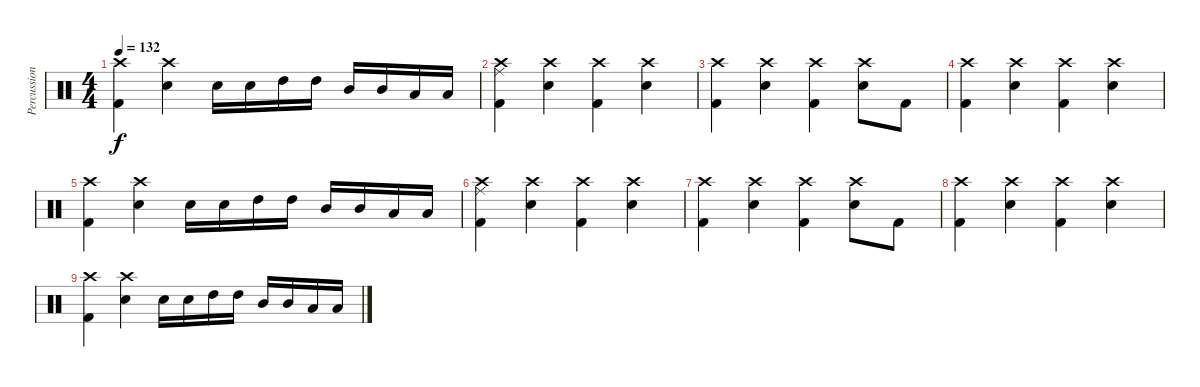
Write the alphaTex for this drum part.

\track ("Percussion" "Percussion") {instrument percussion}
\staff {score}
\articulation defaults
\ts (4 4)
\tempo 132
\clef neutral
\ks c
("Crash high (hit)" "Kick (hit) 2").4{dy f} ("Crash high (hit)" "Snare (hit) 2").4 "Snare (hit) 2".16 "Snare (hit) 2".16 "High Tom (hit)".16 "High Tom (hit)".16 "Mid Tom (hit)".16 "Mid Tom (hit)".16 "Low Tom (hit)".16 "Low Tom (hit)".16 |
("Ride (middle)" "Crash high (hit)" "Kick (hit) 2").4 ("Crash high (hit)" "Snare (hit) 2").4 ("Crash high (hit)" "Kick (hit) 2").4 ("Crash high (hit)" "Snare (hit) 2").4 |
("Crash high (hit)" "Kick (hit) 2").4 ("Crash high (hit)" "Snare (hit) 2").4 ("Crash high (hit)" "Kick (hit) 2").4 ("Crash high (hit)" "Snare (hit) 2").8 "Kick (hit) 2".8 |
("Crash high (hit)" "Kick (hit) 2").4 ("Crash high (hit)" "Snare (hit) 2").4 ("Crash high (hit)" "Kick (hit) 2").4 ("Crash high (hit)" "Snare (hit) 2").4 |
("Crash high (hit)" "Kick (hit) 2").4 ("Crash high (hit)" "Snare (hit) 2").4 "Snare (hit) 2".16 "Snare (hit) 2".16 "High Tom (hit)".16 "High Tom (hit)".16 "Mid Tom (hit)".16 "Mid Tom (hit)".16 "Low Tom (hit)".16 "Low Tom (hit)".16 |
("Ride (middle)" "Crash high (hit)" "Kick (hit) 2").4{volume 0} ("Crash high (hit)" "Snare (hit) 2").4 ("Crash high (hit)" "Kick (hit) 2").4 ("Crash high (hit)" "Snare (hit) 2").4 |
("Crash high (hit)" "Kick (hit) 2").4 ("Crash high (hit)" "Snare (hit) 2").4 ("Crash high (hit)" "Kick (hit) 2").4 ("Crash high (hit)" "Snare (hit) 2").8 "Kick (hit) 2".8 |
("Crash high (hit)" "Kick (hit) 2").4 ("Crash high (hit)" "Snare (hit) 2").4 ("Crash high (hit)" "Kick (hit) 2").4 ("Crash high (hit)" "Snare (hit) 2").4 |
("Crash high (hit)" "Kick (hit) 2").4 ("Crash high (hit)" "Snare (hit) 2").4 "Snare (hit) 2".16 "Snare (hit) 2".16 "High Tom (hit)".16 "High Tom (hit)".16 "Mid Tom (hit)".16 "Mid Tom (hit)".16 "Low Tom (hit)".16 "Low Tom (hit)".16
